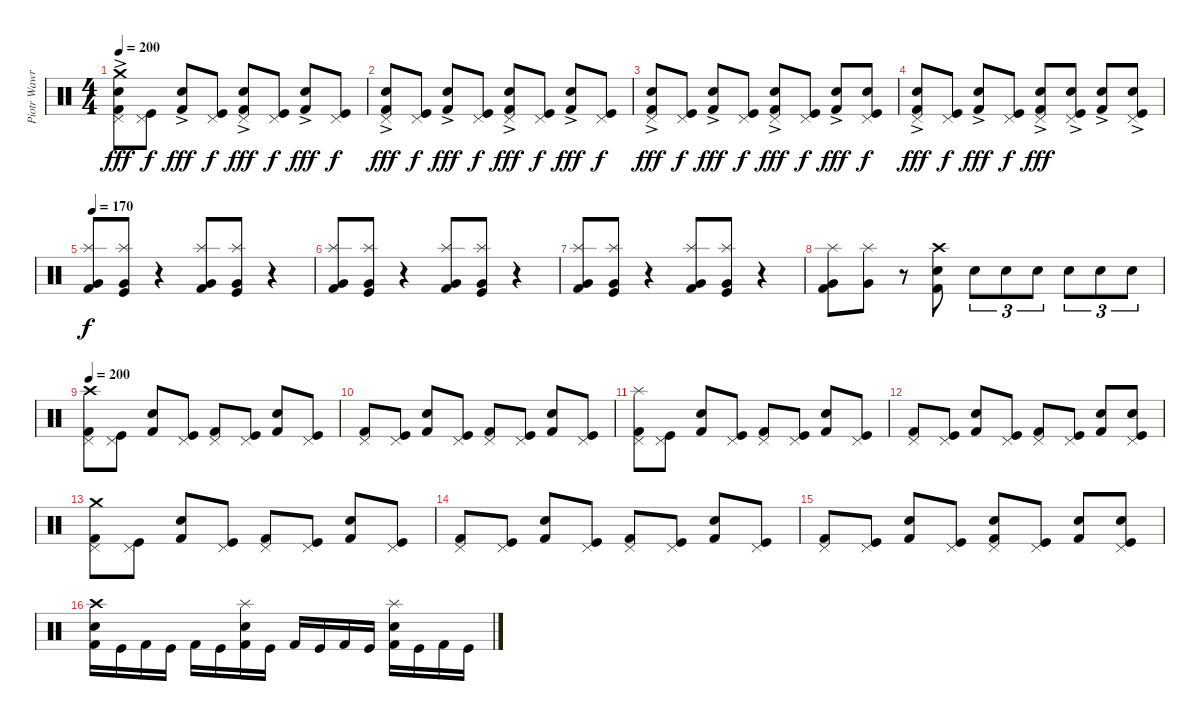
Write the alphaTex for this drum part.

\track ("Piotr Wawrzeniuk" "Piotr Wawr") {instrument percussion}
\staff {score}
\articulation defaults
\ts (4 4)
\tempo 200
\clef neutral
\ks c
("Crash medium (hit)" "Snare (hit) 2"{ac} "Pedal Hi-Hat (hit)" "Kick (hit) 2").8{dy fff} ("Pedal Hi-Hat (hit)" "Kick (hit)").8{dy f} ("Snare (hit) 2"{ac} "Kick (hit) 2").8{dy fff} ("Pedal Hi-Hat (hit)" "Kick (hit)").8{dy f} ("Snare (hit) 2"{ac} "Pedal Hi-Hat (hit)" "Kick (hit) 2").8{dy fff} ("Pedal Hi-Hat (hit)" "Kick (hit)").8{dy f} ("Snare (hit) 2"{ac} "Kick (hit) 2").8{dy fff} ("Pedal Hi-Hat (hit)" "Kick (hit)").8{dy f} |
("Snare (hit) 2"{ac} "Pedal Hi-Hat (hit)" "Kick (hit) 2").8{dy fff} ("Pedal Hi-Hat (hit)" "Kick (hit)").8{dy f} ("Snare (hit) 2"{ac} "Kick (hit) 2").8{dy fff} ("Pedal Hi-Hat (hit)" "Kick (hit)").8{dy f} ("Snare (hit) 2"{ac} "Pedal Hi-Hat (hit)" "Kick (hit) 2").8{dy fff} ("Pedal Hi-Hat (hit)" "Kick (hit)").8{dy f} ("Snare (hit) 2"{ac} "Kick (hit) 2").8{dy fff} ("Pedal Hi-Hat (hit)" "Kick (hit)").8{dy f} |
("Snare (hit) 2"{ac} "Pedal Hi-Hat (hit)" "Kick (hit) 2").8{dy fff} ("Pedal Hi-Hat (hit)" "Kick (hit)").8{dy f} ("Snare (hit) 2"{ac} "Kick (hit) 2").8{dy fff} ("Pedal Hi-Hat (hit)" "Kick (hit)").8{dy f} ("Snare (hit) 2"{ac} "Pedal Hi-Hat (hit)" "Kick (hit) 2").8{dy fff} ("Pedal Hi-Hat (hit)" "Kick (hit)").8{dy f} ("Snare (hit) 2"{ac} "Kick (hit) 2").8{dy fff} ("Snare (hit) 2" "Pedal Hi-Hat (hit)" "Kick (hit)").8{dy f} |
("Snare (hit) 2"{ac} "Pedal Hi-Hat (hit)" "Kick (hit) 2").8{dy fff} ("Pedal Hi-Hat (hit)" "Kick (hit)").8{dy f} ("Snare (hit) 2"{ac} "Kick (hit) 2").8{dy fff} ("Pedal Hi-Hat (hit)" "Kick (hit)").8{dy f} ("Snare (hit) 2"{ac} "Pedal Hi-Hat (hit)" "Kick (hit) 2").8{dy fff} ("Snare (hit) 2"{ac} "Pedal Hi-Hat (hit)" "Kick (hit)").8 ("Snare (hit) 2"{ac} "Kick (hit) 2").8 ("Snare (hit) 2"{ac} "Pedal Hi-Hat (hit)" "Kick (hit)").8 |
\tempo 170
("Splash (hit)" "Very Low Tom (hit)" "Kick (hit) 2").8{dy f} ("Splash (hit)" "Very Low Tom (hit)" "Kick (hit)").8 r.4 ("Splash (hit)" "Very Low Tom (hit)" "Kick (hit) 2").8 ("Splash (hit)" "Very Low Tom (hit)" "Kick (hit)").8 r.4 |
("Splash (hit)" "Very Low Tom (hit)" "Kick (hit) 2").8 ("Splash (hit)" "Very Low Tom (hit)" "Kick (hit)").8 r.4 ("Splash (hit)" "Very Low Tom (hit)" "Kick (hit) 2").8 ("Splash (hit)" "Very Low Tom (hit)" "Kick (hit)").8 r.4 |
("Splash (hit)" "Very Low Tom (hit)" "Kick (hit) 2").8 ("Splash (hit)" "Very Low Tom (hit)" "Kick (hit)").8 r.4 ("Splash (hit)" "Very Low Tom (hit)" "Kick (hit) 2").8 ("Splash (hit)" "Very Low Tom (hit)" "Kick (hit)").8 r.4 |
("Splash (hit)" "Very Low Tom (hit)" "Kick (hit) 2").8 ("Splash (hit)" "Very Low Tom (hit)").8 r.8 ("Crash high (hit)" "Snare (hit) 2" "Kick (hit) 2").8 "Snare (hit) 2".8{tu (3 2)} "Snare (hit) 2".8{tu (3 2)} "Snare (hit) 2".8{tu (3 2)} "Snare (hit) 2".8{tu (3 2)} "Snare (hit) 2".8{tu (3 2)} "Snare (hit) 2".8{tu (3 2)} |
\tempo 200
("Crash high (hit)" "Pedal Hi-Hat (hit)" "Kick (hit) 2").8 ("Pedal Hi-Hat (hit)" "Kick (hit)").8 ("Snare (hit) 2" "Kick (hit) 2").8 ("Pedal Hi-Hat (hit)" "Kick (hit)").8 ("Pedal Hi-Hat (hit)" "Kick (hit) 2").8 ("Pedal Hi-Hat (hit)" "Kick (hit)").8 ("Snare (hit) 2" "Kick (hit) 2").8 ("Pedal Hi-Hat (hit)" "Kick (hit)").8 |
("Pedal Hi-Hat (hit)" "Kick (hit) 2").8 ("Pedal Hi-Hat (hit)" "Kick (hit)").8 ("Snare (hit) 2" "Kick (hit) 2").8 ("Pedal Hi-Hat (hit)" "Kick (hit)").8 ("Pedal Hi-Hat (hit)" "Kick (hit) 2").8 ("Pedal Hi-Hat (hit)" "Kick (hit)").8 ("Snare (hit) 2" "Kick (hit) 2").8 ("Pedal Hi-Hat (hit)" "Kick (hit)").8 |
("Splash (hit)" "Pedal Hi-Hat (hit)" "Kick (hit) 2").8 ("Pedal Hi-Hat (hit)" "Kick (hit)").8 ("Snare (hit) 2" "Kick (hit) 2").8 ("Pedal Hi-Hat (hit)" "Kick (hit)").8 ("Pedal Hi-Hat (hit)" "Kick (hit) 2").8 ("Pedal Hi-Hat (hit)" "Kick (hit)").8 ("Snare (hit) 2" "Kick (hit) 2").8 ("Pedal Hi-Hat (hit)" "Kick (hit)").8 |
("Pedal Hi-Hat (hit)" "Kick (hit) 2").8 ("Pedal Hi-Hat (hit)" "Kick (hit)").8 ("Snare (hit) 2" "Kick (hit) 2").8 ("Pedal Hi-Hat (hit)" "Kick (hit)").8 ("Pedal Hi-Hat (hit)" "Kick (hit) 2").8 ("Pedal Hi-Hat (hit)" "Kick (hit)").8 ("Snare (hit) 2" "Kick (hit) 2").8 ("Snare (hit) 2" "Pedal Hi-Hat (hit)" "Kick (hit)").8 |
("Crash medium (hit)" "Pedal Hi-Hat (hit)" "Kick (hit) 2").8 ("Pedal Hi-Hat (hit)" "Kick (hit)").8 ("Snare (hit) 2" "Kick (hit) 2").8 ("Pedal Hi-Hat (hit)" "Kick (hit)").8 ("Pedal Hi-Hat (hit)" "Kick (hit) 2").8 ("Pedal Hi-Hat (hit)" "Kick (hit)").8 ("Snare (hit) 2" "Kick (hit) 2").8 ("Pedal Hi-Hat (hit)" "Kick (hit)").8 |
("Pedal Hi-Hat (hit)" "Kick (hit) 2").8 ("Pedal Hi-Hat (hit)" "Kick (hit)").8 ("Snare (hit) 2" "Kick (hit) 2").8 ("Pedal Hi-Hat (hit)" "Kick (hit)").8 ("Pedal Hi-Hat (hit)" "Kick (hit) 2").8 ("Pedal Hi-Hat (hit)" "Kick (hit)").8 ("Snare (hit) 2" "Kick (hit) 2").8 ("Pedal Hi-Hat (hit)" "Kick (hit)").8 |
("Pedal Hi-Hat (hit)" "Kick (hit) 2").8 ("Pedal Hi-Hat (hit)" "Kick (hit)").8 ("Snare (hit) 2" "Kick (hit) 2").8 ("Pedal Hi-Hat (hit)" "Kick (hit)").8 ("Snare (hit) 2" "Pedal Hi-Hat (hit)" "Kick (hit) 2").8 ("Pedal Hi-Hat (hit)" "Kick (hit)").8 ("Snare (hit) 2" "Kick (hit) 2").8 ("Snare (hit) 2" "Pedal Hi-Hat (hit)" "Kick (hit)").8 |
("Crash high (hit)" "Snare (hit) 2" "Kick (hit) 2").16 "Kick (hit)".16 "Kick (hit) 2".16 "Kick (hit)".16 "Kick (hit) 2".16 "Kick (hit)".16 ("Splash (hit)" "Snare (hit) 2" "Kick (hit) 2").16 "Kick (hit)".16 "Kick (hit) 2".16 "Kick (hit)".16 "Kick (hit) 2".16 "Kick (hit)".16 ("Splash (hit)" "Snare (hit) 2" "Kick (hit) 2").16 "Kick (hit)".16 "Kick (hit) 2".16 "Kick (hit)".16
